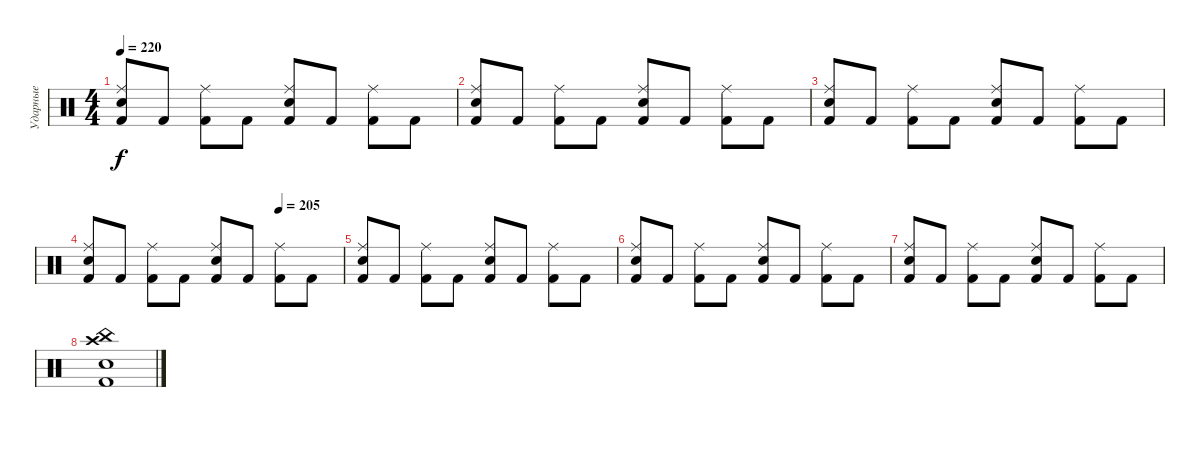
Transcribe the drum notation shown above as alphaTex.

\track ("Ударные" "Ударные") {instrument percussion}
\staff {score}
\articulation defaults
\ts (4 4)
\tempo 220
\clef neutral
\ks c
("Electric Snare (hit)" "Ride (middle)" "Kick (hit) 2").8{dy f} "Kick (hit) 2".8 ("Ride (middle)" "Kick (hit) 2").8 "Kick (hit) 2".8 ("Electric Snare (hit)" "Ride (middle)" "Kick (hit) 2").8 "Kick (hit) 2".8 ("Ride (middle)" "Kick (hit) 2").8 "Kick (hit) 2".8 |
("Electric Snare (hit)" "Ride (middle)" "Kick (hit) 2").8 "Kick (hit) 2".8 ("Ride (middle)" "Kick (hit) 2").8 "Kick (hit) 2".8 ("Electric Snare (hit)" "Ride (middle)" "Kick (hit) 2").8 "Kick (hit) 2".8 ("Ride (middle)" "Kick (hit) 2").8 "Kick (hit) 2".8 |
("Electric Snare (hit)" "Ride (middle)" "Kick (hit) 2").8 "Kick (hit) 2".8 ("Ride (middle)" "Kick (hit) 2").8 "Kick (hit) 2".8 ("Electric Snare (hit)" "Ride (middle)" "Kick (hit) 2").8 "Kick (hit) 2".8 ("Ride (middle)" "Kick (hit) 2").8 "Kick (hit) 2".8 |
\tempo (205 0.75)
("Electric Snare (hit)" "Ride (middle)" "Kick (hit) 2").8 "Kick (hit) 2".8 ("Ride (middle)" "Kick (hit) 2").8 "Kick (hit) 2".8 ("Electric Snare (hit)" "Ride (middle)" "Kick (hit) 2").8 "Kick (hit) 2".8 ("Ride (middle)" "Kick (hit) 2").8 "Kick (hit) 2".8 |
("Electric Snare (hit)" "Ride (middle)" "Kick (hit) 2").8 "Kick (hit) 2".8 ("Ride (middle)" "Kick (hit) 2").8 "Kick (hit) 2".8 ("Electric Snare (hit)" "Ride (middle)" "Kick (hit) 2").8 "Kick (hit) 2".8 ("Ride (middle)" "Kick (hit) 2").8 "Kick (hit) 2".8 |
("Electric Snare (hit)" "Ride (middle)" "Kick (hit) 2").8 "Kick (hit) 2".8 ("Ride (middle)" "Kick (hit) 2").8 "Kick (hit) 2".8 ("Electric Snare (hit)" "Ride (middle)" "Kick (hit) 2").8 "Kick (hit) 2".8 ("Ride (middle)" "Kick (hit) 2").8 "Kick (hit) 2".8 |
("Electric Snare (hit)" "Ride (middle)" "Kick (hit) 2").8 "Kick (hit) 2".8 ("Ride (middle)" "Kick (hit) 2").8 "Kick (hit) 2".8 ("Electric Snare (hit)" "Ride (middle)" "Kick (hit) 2").8 "Kick (hit) 2".8 ("Ride (middle)" "Kick (hit) 2").8 "Kick (hit) 2".8 |
("Electric Snare (hit)" "Crash high (hit)" "China (hit)" "Kick (hit) 2").1
